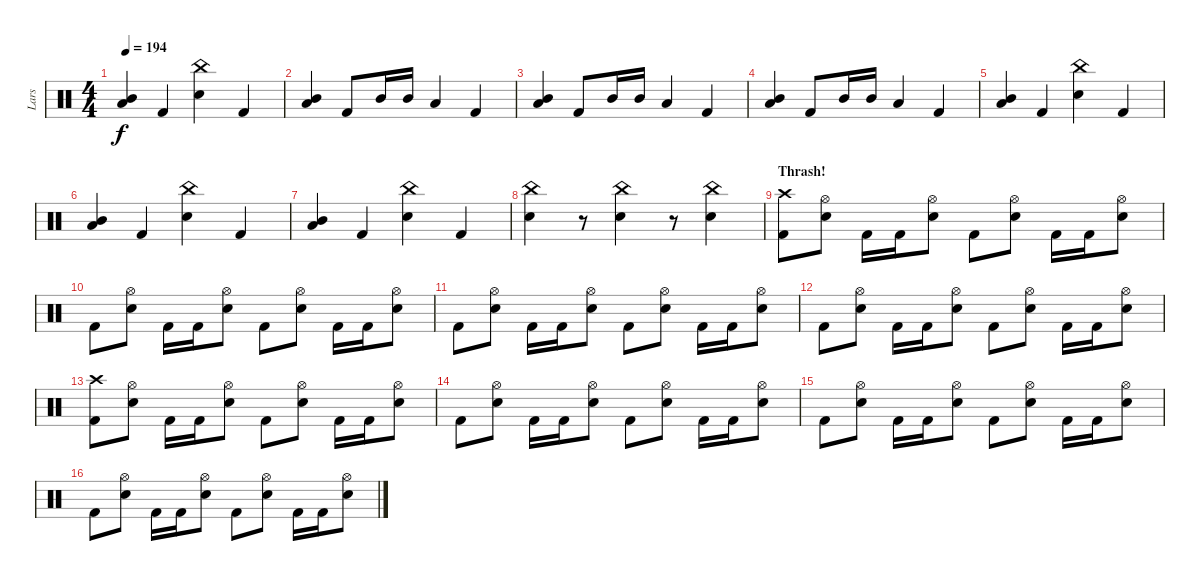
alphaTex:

\track ("Lars" "Lars") {instrument percussion}
\staff {score}
\articulation defaults
\ts (4 4)
\tempo 194
\clef neutral
\ks c
("Mid Tom (hit)" "Low Tom (hit)").4{bu 60 dy f} "Kick (hit) 2".4 ("Electric Snare (hit)" "China (hit)").4 "Kick (hit) 2".4 |
("Mid Tom (hit)" "Low Tom (hit)").4{bu 60} "Kick (hit) 2".8 "Mid Tom (hit)".16 "Mid Tom (hit)".16 "Low Tom (hit)".4 "Kick (hit) 2".4 |
("Mid Tom (hit)" "Low Tom (hit)").4{bu 60} "Kick (hit) 2".8 "Mid Tom (hit)".16 "Mid Tom (hit)".16 "Low Tom (hit)".4 "Kick (hit) 2".4 |
("Mid Tom (hit)" "Low Tom (hit)").4{bu 60} "Kick (hit) 2".8 "Mid Tom (hit)".16 "Mid Tom (hit)".16 "Low Tom (hit)".4 "Kick (hit) 2".4 |
("Mid Tom (hit)" "Low Tom (hit)").4{bu 60} "Kick (hit) 2".4 ("Electric Snare (hit)" "China (hit)").4 "Kick (hit) 2".4 |
("Mid Tom (hit)" "Low Tom (hit)").4{bu 60} "Kick (hit) 2".4 ("Electric Snare (hit)" "China (hit)").4 "Kick (hit) 2".4 |
("Mid Tom (hit)" "Low Tom (hit)").4{bu 60} "Kick (hit) 2".4 ("Electric Snare (hit)" "China (hit)").4 "Kick (hit) 2".4 |
("Electric Snare (hit)" "China (hit)").4 r.8 ("Electric Snare (hit)" "China (hit)").4 r.8 ("Electric Snare (hit)" "China (hit)").4 |
\section ("" "Thrash!")
("Kick (hit) 2" "Crash high (hit)").8 ("Electric Snare (hit)" "Hi-Hat (open)").8 "Kick (hit) 2".16 "Kick (hit) 2".16 ("Electric Snare (hit)" "Hi-Hat (open)").8 "Kick (hit) 2".8 ("Electric Snare (hit)" "Hi-Hat (open)").8 "Kick (hit) 2".16 "Kick (hit) 2".16 ("Electric Snare (hit)" "Hi-Hat (open)").8 |
"Kick (hit) 2".8 ("Electric Snare (hit)" "Hi-Hat (open)").8 "Kick (hit) 2".16 "Kick (hit) 2".16 ("Electric Snare (hit)" "Hi-Hat (open)").8 "Kick (hit) 2".8 ("Electric Snare (hit)" "Hi-Hat (open)").8 "Kick (hit) 2".16 "Kick (hit) 2".16 ("Electric Snare (hit)" "Hi-Hat (open)").8 |
"Kick (hit) 2".8 ("Electric Snare (hit)" "Hi-Hat (open)").8 "Kick (hit) 2".16 "Kick (hit) 2".16 ("Electric Snare (hit)" "Hi-Hat (open)").8 "Kick (hit) 2".8 ("Electric Snare (hit)" "Hi-Hat (open)").8 "Kick (hit) 2".16 "Kick (hit) 2".16 ("Electric Snare (hit)" "Hi-Hat (open)").8 |
"Kick (hit) 2".8 ("Electric Snare (hit)" "Hi-Hat (open)").8 "Kick (hit) 2".16 "Kick (hit) 2".16 ("Electric Snare (hit)" "Hi-Hat (open)").8 "Kick (hit) 2".8 ("Electric Snare (hit)" "Hi-Hat (open)").8 "Kick (hit) 2".16 "Kick (hit) 2".16 ("Electric Snare (hit)" "Hi-Hat (open)").8 |
("Kick (hit) 2" "Crash high (hit)").8 ("Electric Snare (hit)" "Hi-Hat (open)").8 "Kick (hit) 2".16 "Kick (hit) 2".16 ("Electric Snare (hit)" "Hi-Hat (open)").8 "Kick (hit) 2".8 ("Electric Snare (hit)" "Hi-Hat (open)").8 "Kick (hit) 2".16 "Kick (hit) 2".16 ("Electric Snare (hit)" "Hi-Hat (open)").8 |
"Kick (hit) 2".8 ("Electric Snare (hit)" "Hi-Hat (open)").8 "Kick (hit) 2".16 "Kick (hit) 2".16 ("Electric Snare (hit)" "Hi-Hat (open)").8 "Kick (hit) 2".8 ("Electric Snare (hit)" "Hi-Hat (open)").8 "Kick (hit) 2".16 "Kick (hit) 2".16 ("Electric Snare (hit)" "Hi-Hat (open)").8 |
"Kick (hit) 2".8 ("Electric Snare (hit)" "Hi-Hat (open)").8 "Kick (hit) 2".16 "Kick (hit) 2".16 ("Electric Snare (hit)" "Hi-Hat (open)").8 "Kick (hit) 2".8 ("Electric Snare (hit)" "Hi-Hat (open)").8 "Kick (hit) 2".16 "Kick (hit) 2".16 ("Electric Snare (hit)" "Hi-Hat (open)").8 |
"Kick (hit) 2".8 ("Electric Snare (hit)" "Hi-Hat (open)").8 "Kick (hit) 2".16 "Kick (hit) 2".16 ("Electric Snare (hit)" "Hi-Hat (open)").8 "Kick (hit) 2".8 ("Electric Snare (hit)" "Hi-Hat (open)").8 "Kick (hit) 2".16 "Kick (hit) 2".16 ("Electric Snare (hit)" "Hi-Hat (open)").8
